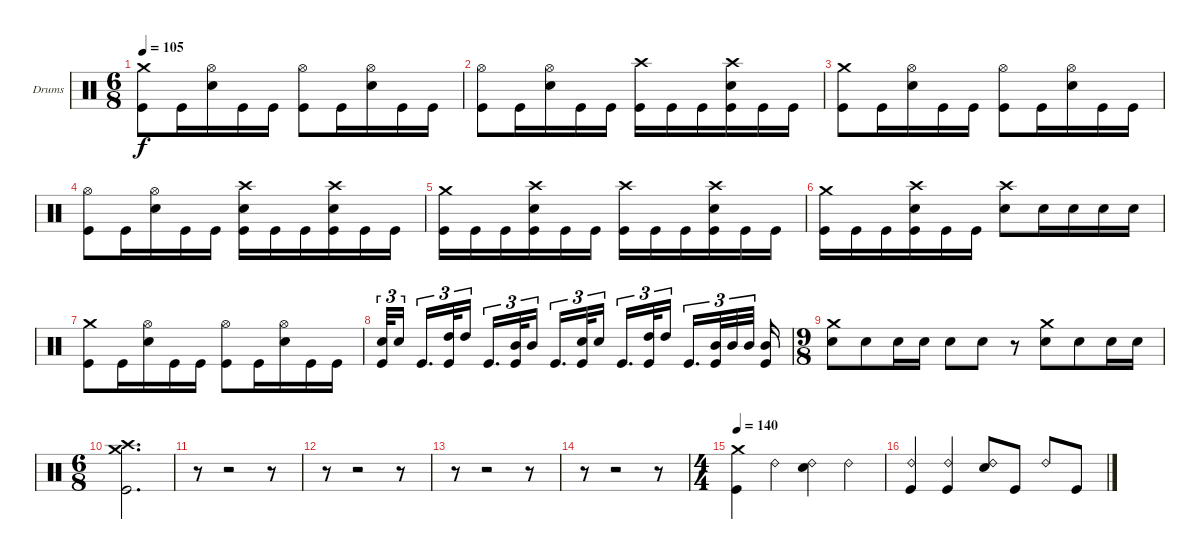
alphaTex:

\defaultSystemsLayout 4
\bracketExtendMode groupsimilarinstruments
\firstSystemTrackNameOrientation horizontal
\otherSystemsTrackNameOrientation horizontal
\track ("Stefan Schwarzmann" "Drums") {instrument percussion}
\staff {score}
\articulation defaults
\ts (6 8)
\tempo 105
\clef neutral
\ks c
("Crash medium (hit)" "Kick (hit)").8{dy f} "Kick (hit)".16 ("Hi-Hat (open)" "Snare (hit) 2").16 "Kick (hit)".16 "Kick (hit)".16 ("Hi-Hat (open)" "Kick (hit)").8 "Kick (hit)".16 ("Hi-Hat (open)" "Snare (hit) 2").16 "Kick (hit)".16 "Kick (hit)".16 |
("Hi-Hat (open)" "Kick (hit)").8 "Kick (hit)".16 ("Hi-Hat (open)" "Snare (hit) 2").16 "Kick (hit)".16 "Kick (hit)".16 ("Crash high (hit)" "Kick (hit)").16 "Kick (hit)".16 "Kick (hit)".16 ("Crash high (hit)" "Snare (hit) 2" "Kick (hit)").16 "Kick (hit)".16 "Kick (hit)".16 |
("Crash medium (hit)" "Kick (hit)").8 "Kick (hit)".16 ("Hi-Hat (open)" "Snare (hit) 2").16 "Kick (hit)".16 "Kick (hit)".16 ("Hi-Hat (open)" "Kick (hit)").8 "Kick (hit)".16 ("Hi-Hat (open)" "Snare (hit) 2").16 "Kick (hit)".16 "Kick (hit)".16 |
("Hi-Hat (open)" "Kick (hit)").8 "Kick (hit)".16 ("Hi-Hat (open)" "Snare (hit) 2").16 "Kick (hit)".16 "Kick (hit)".16 ("Crash high (hit)" "Snare (hit) 2" "Kick (hit)").16 "Kick (hit)".16 "Kick (hit)".16 ("Crash high (hit)" "Snare (hit) 2" "Kick (hit)").16 "Kick (hit)".16 "Kick (hit)".16 |
("Crash medium (hit)" "Kick (hit)").16 "Kick (hit)".16 "Kick (hit)".16 ("Crash high (hit)" "Snare (hit) 2" "Kick (hit)").16 "Kick (hit)".16 "Kick (hit)".16 ("Crash high (hit)" "Kick (hit)").16 "Kick (hit)".16 "Kick (hit)".16 ("Crash high (hit)" "Snare (hit) 2" "Kick (hit)").16 "Kick (hit)".16 "Kick (hit)".16 |
("Crash medium (hit)" "Kick (hit)").16 "Kick (hit)".16 "Kick (hit)".16 ("Crash high (hit)" "Snare (hit) 2" "Kick (hit)").16 "Kick (hit)".16 "Kick (hit)".16 ("Crash high (hit)" "Snare (hit) 2").8 "Snare (hit) 2".16 "Snare (hit) 2".16 "Snare (hit) 2".16 "Snare (hit) 2".16 |
("Crash medium (hit)" "Kick (hit)").8 "Kick (hit)".16 ("Hi-Hat (open)" "Snare (hit) 2").16 "Kick (hit)".16 "Kick (hit)".16 ("Hi-Hat (open)" "Kick (hit)").8 "Kick (hit)".16 ("Hi-Hat (open)" "Snare (hit) 2").16 "Kick (hit)".16 "Kick (hit)".16 |
("Snare (hit) 2" "Kick (hit)").32{tu (3 2)} "Snare (hit) 2".16{tu (3 2)} "Kick (hit)".16{d tu (3 2)} ("High Tom (hit)" "Kick (hit)").32{tu (3 2)} "High Tom (hit)".16{tu (3 2)} "Kick (hit)".16{d tu (3 2)} ("Mid Tom (hit)" "Kick (hit)").32{tu (3 2)} "Mid Tom (hit)".16{tu (3 2)} "Kick (hit)".16{d tu (3 2)} ("Snare (hit) 2" "Kick (hit)").32{tu (3 2)} "Snare (hit) 2".16{tu (3 2)} "Kick (hit)".16{d tu (3 2)} ("High Tom (hit)" "Kick (hit)").32{tu (3 2)} "High Tom (hit)".16{tu (3 2)} "Kick (hit)".16{d tu (3 2)} ("Mid Tom (hit)" "Kick (hit)").32{tu (3 2)} "Mid Tom (hit)".32{tu (3 2)} "Mid Tom (hit)".32{tu (3 2)} ("Mid Tom (hit)" "Kick (hit)").16 |
\ts (9 8)
("Crash medium (hit)" "Snare (hit) 2").8 "Snare (hit) 2".8 "Snare (hit) 2".16 "Snare (hit) 2".16 "Snare (hit) 2".8 "Snare (hit) 2".8 r.8 ("Crash medium (hit)" "Snare (hit) 2").8 "Snare (hit) 2".8 "Snare (hit) 2".16 "Snare (hit) 2".16 |
\ts (6 8)
("Crash medium (hit)" "Crash high (hit)" "Kick (hit)").2{d} |
r.8 r.2 r.8 |
r.8 r.2 r.8 |
r.8 r.2 r.8 |
r.8 r.2 r.8 |
\ts (4 4)
\tempo 140
("Crash medium (hit)" "Kick (hit)").4 "Ride (bell) 2".4 ("Ride (bell) 2" "Snare (hit) 2").4 "Ride (bell) 2".4 |
("Ride (bell) 2" "Kick (hit)").4 ("Ride (bell) 2" "Kick (hit)").4 ("Ride (bell) 2" "Snare (hit) 2").8 "Kick (hit)".8 "Ride (bell) 2".8 "Kick (hit)".8
